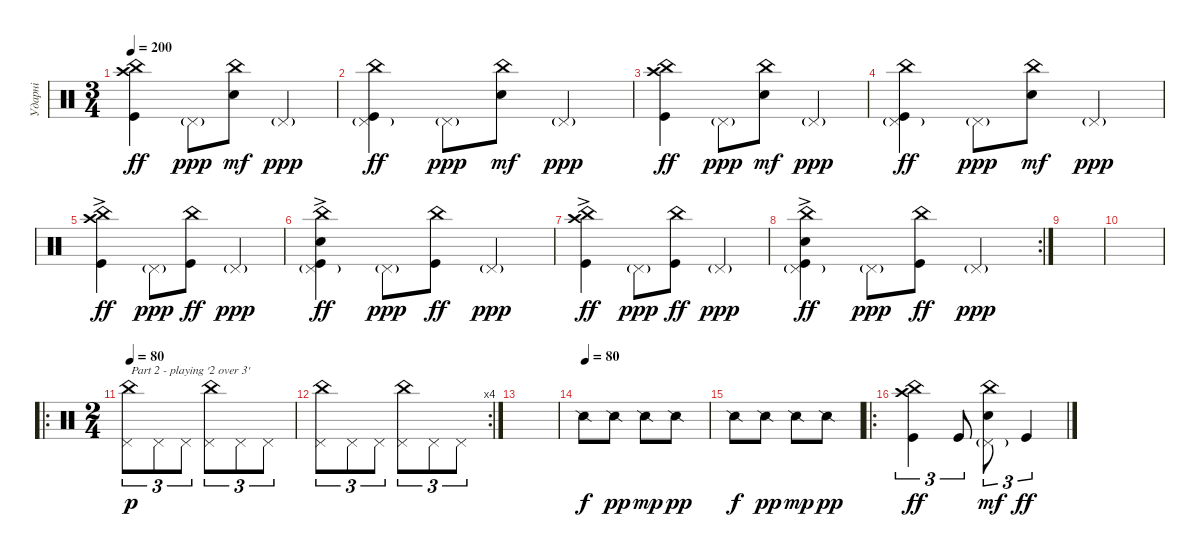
\track ("Ударні" "Ударні") {instrument percussion}
\staff {score}
\articulation defaults
\ts (3 4)
\tempo 200
\clef neutral
\ks c
("China (hit)" "Crash high (hit)" "Kick (hit)").4{dy ff} "Pedal Hi-Hat (hit)"{g}.8{dy ppp} ("China (hit)" "Snare (hit) 2").8{dy mf} "Pedal Hi-Hat (hit)"{g}.4{dy ppp} |
("China (hit)" "Pedal Hi-Hat (hit)"{g} "Kick (hit)").4{dy ff} "Pedal Hi-Hat (hit)"{g}.8{dy ppp} ("China (hit)" "Snare (hit) 2").8{dy mf} "Pedal Hi-Hat (hit)"{g}.4{dy ppp} |
("China (hit)" "Crash high (hit)" "Kick (hit)").4{dy ff} "Pedal Hi-Hat (hit)"{g}.8{dy ppp} ("China (hit)" "Snare (hit) 2").8{dy mf} "Pedal Hi-Hat (hit)"{g}.4{dy ppp} |
("China (hit)" "Pedal Hi-Hat (hit)"{g} "Kick (hit)").4{dy ff} "Pedal Hi-Hat (hit)"{g}.8{dy ppp} ("China (hit)" "Snare (hit) 2").8{dy mf} "Pedal Hi-Hat (hit)"{g}.4{dy ppp} |
("China (hit)"{ac} "Crash high (hit)" "Kick (hit)").4{dy ff} "Pedal Hi-Hat (hit)"{g}.8{dy ppp} ("China (hit)" "Kick (hit)").8{dy ff} "Pedal Hi-Hat (hit)"{g}.4{dy ppp} |
("China (hit)"{ac} "Pedal Hi-Hat (hit)"{g} "Snare (hit) 2" "Kick (hit)").4{dy ff} "Pedal Hi-Hat (hit)"{g}.8{dy ppp} ("China (hit)" "Kick (hit)").8{dy ff} "Pedal Hi-Hat (hit)"{g}.4{dy ppp} |
("China (hit)"{ac} "Crash high (hit)" "Kick (hit)").4{dy ff} "Pedal Hi-Hat (hit)"{g}.8{dy ppp} ("China (hit)" "Kick (hit)").8{dy ff} "Pedal Hi-Hat (hit)"{g}.4{dy ppp} |
\rc 2
("China (hit)"{ac} "Pedal Hi-Hat (hit)"{g} "Snare (hit) 2" "Kick (hit)").4{dy ff} "Pedal Hi-Hat (hit)"{g}.8{dy ppp} ("China (hit)" "Kick (hit)").8{dy ff} "Pedal Hi-Hat (hit)"{g}.4{dy ppp} |
|
|
\ro
\ts (2 4)
\tempo 80
("China (hit)" "Pedal Hi-Hat (hit)").8{tu (3 2) txt "Part 2 - playing '2 over 3'" dy p} "Pedal Hi-Hat (hit)".8{tu (3 2)} "Pedal Hi-Hat (hit)".8{tu (3 2)} ("China (hit)" "Pedal Hi-Hat (hit)").8{tu (3 2)} "Pedal Hi-Hat (hit)".8{tu (3 2)} "Pedal Hi-Hat (hit)".8{tu (3 2)} |
\rc 4
("China (hit)" "Pedal Hi-Hat (hit)").8{tu (3 2)} "Pedal Hi-Hat (hit)".8{tu (3 2)} "Pedal Hi-Hat (hit)".8{tu (3 2)} ("China (hit)" "Pedal Hi-Hat (hit)").8{tu (3 2)} "Pedal Hi-Hat (hit)".8{tu (3 2)} "Pedal Hi-Hat (hit)".8{tu (3 2)} |
|
\tempo (80)
"Snare (side stick) 2".8{dy f} "Snare (side stick) 2".8{dy pp} "Snare (side stick) 2".8{dy mp} "Snare (side stick) 2".8{dy pp} |
"Snare (side stick) 2".8{dy f} "Snare (side stick) 2".8{dy pp} "Snare (side stick) 2".8{dy mp} "Snare (side stick) 2".8{dy pp} |
\ro
("China (hit)" "Crash high (hit)" "Kick (hit)").4{tu (3 2) dy ff} "Kick (hit)".8{tu (3 2)} ("China (hit)" "Pedal Hi-Hat (hit)"{g} "Snare (hit) 2").8{tu (3 2) dy mf} "Kick (hit)".4{tu (3 2) dy ff}
